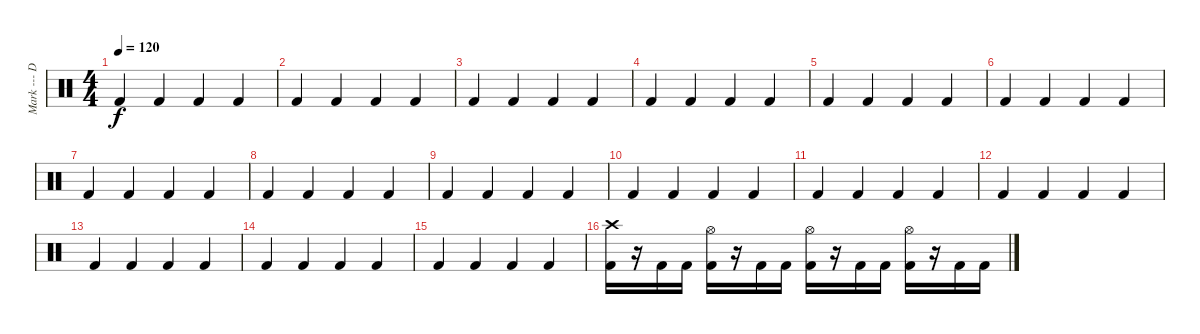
\track ("Mark --- Drums" "Mark --- D") {instrument percussion}
\staff {score}
\articulation defaults
\ts (4 4)
\tempo 120
\clef neutral
\ks c "Kick (hit) 2".4{dy f} "Kick (hit) 2".4 "Kick (hit) 2".4 "Kick (hit) 2".4
|
"Kick (hit) 2".4 "Kick (hit) 2".4 "Kick (hit) 2".4 "Kick (hit) 2".4 |
"Kick (hit) 2".4 "Kick (hit) 2".4 "Kick (hit) 2".4 "Kick (hit) 2".4 |
"Kick (hit) 2".4 "Kick (hit) 2".4 "Kick (hit) 2".4 "Kick (hit) 2".4 |
"Kick (hit) 2".4 "Kick (hit) 2".4 "Kick (hit) 2".4 "Kick (hit) 2".4 |
"Kick (hit) 2".4 "Kick (hit) 2".4 "Kick (hit) 2".4 "Kick (hit) 2".4 |
"Kick (hit) 2".4 "Kick (hit) 2".4 "Kick (hit) 2".4 "Kick (hit) 2".4 |
"Kick (hit) 2".4 "Kick (hit) 2".4 "Kick (hit) 2".4 "Kick (hit) 2".4 |
"Kick (hit) 2".4 "Kick (hit) 2".4 "Kick (hit) 2".4 "Kick (hit) 2".4 |
"Kick (hit) 2".4 "Kick (hit) 2".4 "Kick (hit) 2".4 "Kick (hit) 2".4 |
"Kick (hit) 2".4 "Kick (hit) 2".4 "Kick (hit) 2".4 "Kick (hit) 2".4 |
"Kick (hit) 2".4 "Kick (hit) 2".4 "Kick (hit) 2".4 "Kick (hit) 2".4 |
"Kick (hit) 2".4 "Kick (hit) 2".4 "Kick (hit) 2".4 "Kick (hit) 2".4 |
"Kick (hit) 2".4 "Kick (hit) 2".4 "Kick (hit) 2".4 "Kick (hit) 2".4 |
"Kick (hit) 2".4 "Kick (hit) 2".4 "Kick (hit) 2".4 "Kick (hit) 2".4 |
("Kick (hit) 2" "Crash high (hit)").16 r.16 "Kick (hit) 2".16 "Kick (hit) 2".16 ("Kick (hit) 2" "Hi-Hat (open)").16 r.16 "Kick (hit) 2".16 "Kick (hit) 2".16 ("Kick (hit) 2" "Hi-Hat (open)").16 r.16 "Kick (hit) 2".16 "Kick (hit) 2".16 ("Kick (hit) 2" "Hi-Hat (open)").16 r.16 "Kick (hit) 2".16 "Kick (hit) 2".16
